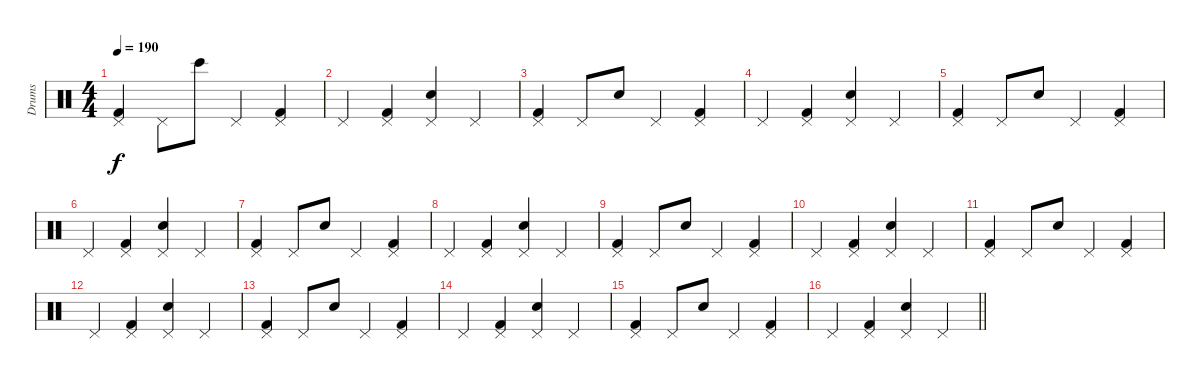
\track ("Drums" "Drums") {instrument percussion}
\staff {score}
\articulation defaults
\ts (4 4)
\tempo 190
\clef neutral
\ks c
("Pedal Hi-Hat (hit)" "Kick (hit) 2").4{dy f} "Pedal Hi-Hat (hit)".8 "Bongo High (hit)".8 "Pedal Hi-Hat (hit)".4 ("Pedal Hi-Hat (hit)" "Kick (hit) 2").4 |
"Pedal Hi-Hat (hit)".4 ("Pedal Hi-Hat (hit)" "Kick (hit) 2").4 ("Pedal Hi-Hat (hit)" "Hand Clap (hit)").4 "Pedal Hi-Hat (hit)".4 |
("Pedal Hi-Hat (hit)" "Kick (hit) 2").4 "Pedal Hi-Hat (hit)".8 "Snare (hit) 2".8 "Pedal Hi-Hat (hit)".4 ("Pedal Hi-Hat (hit)" "Kick (hit) 2").4 |
"Pedal Hi-Hat (hit)".4 ("Pedal Hi-Hat (hit)" "Kick (hit) 2").4 ("Pedal Hi-Hat (hit)" "Snare (hit) 2").4 "Pedal Hi-Hat (hit)".4 |
("Pedal Hi-Hat (hit)" "Kick (hit) 2").4 "Pedal Hi-Hat (hit)".8 "Snare (hit) 2".8 "Pedal Hi-Hat (hit)".4 ("Pedal Hi-Hat (hit)" "Kick (hit) 2").4 |
"Pedal Hi-Hat (hit)".4 ("Pedal Hi-Hat (hit)" "Kick (hit) 2").4 ("Pedal Hi-Hat (hit)" "Snare (hit) 2").4 "Pedal Hi-Hat (hit)".4 |
("Pedal Hi-Hat (hit)" "Kick (hit) 2").4 "Pedal Hi-Hat (hit)".8 "Snare (hit) 2".8 "Pedal Hi-Hat (hit)".4 ("Pedal Hi-Hat (hit)" "Kick (hit) 2").4 |
"Pedal Hi-Hat (hit)".4 ("Pedal Hi-Hat (hit)" "Kick (hit) 2").4 ("Pedal Hi-Hat (hit)" "Snare (hit) 2").4 "Pedal Hi-Hat (hit)".4 |
("Pedal Hi-Hat (hit)" "Kick (hit) 2").4 "Pedal Hi-Hat (hit)".8 "Snare (hit) 2".8 "Pedal Hi-Hat (hit)".4 ("Pedal Hi-Hat (hit)" "Kick (hit) 2").4 |
"Pedal Hi-Hat (hit)".4 ("Pedal Hi-Hat (hit)" "Kick (hit) 2").4 ("Pedal Hi-Hat (hit)" "Snare (hit) 2").4 "Pedal Hi-Hat (hit)".4 |
("Pedal Hi-Hat (hit)" "Kick (hit) 2").4 "Pedal Hi-Hat (hit)".8 "Snare (hit) 2".8 "Pedal Hi-Hat (hit)".4 ("Pedal Hi-Hat (hit)" "Kick (hit) 2").4 |
"Pedal Hi-Hat (hit)".4 ("Pedal Hi-Hat (hit)" "Kick (hit) 2").4 ("Pedal Hi-Hat (hit)" "Snare (hit) 2").4 "Pedal Hi-Hat (hit)".4 |
("Pedal Hi-Hat (hit)" "Kick (hit) 2").4 "Pedal Hi-Hat (hit)".8 "Snare (hit) 2".8 "Pedal Hi-Hat (hit)".4 ("Pedal Hi-Hat (hit)" "Kick (hit) 2").4 |
"Pedal Hi-Hat (hit)".4 ("Pedal Hi-Hat (hit)" "Kick (hit) 2").4 ("Pedal Hi-Hat (hit)" "Snare (hit) 2").4 "Pedal Hi-Hat (hit)".4 |
("Pedal Hi-Hat (hit)" "Kick (hit) 2").4 "Pedal Hi-Hat (hit)".8 "Snare (hit) 2".8 "Pedal Hi-Hat (hit)".4 ("Pedal Hi-Hat (hit)" "Kick (hit) 2").4 |
\barLineRight lightlight "Pedal Hi-Hat (hit)".4
("Pedal Hi-Hat (hit)" "Kick (hit) 2").4 ("Pedal Hi-Hat (hit)" "Snare (hit) 2").4 "Pedal Hi-Hat (hit)".4
